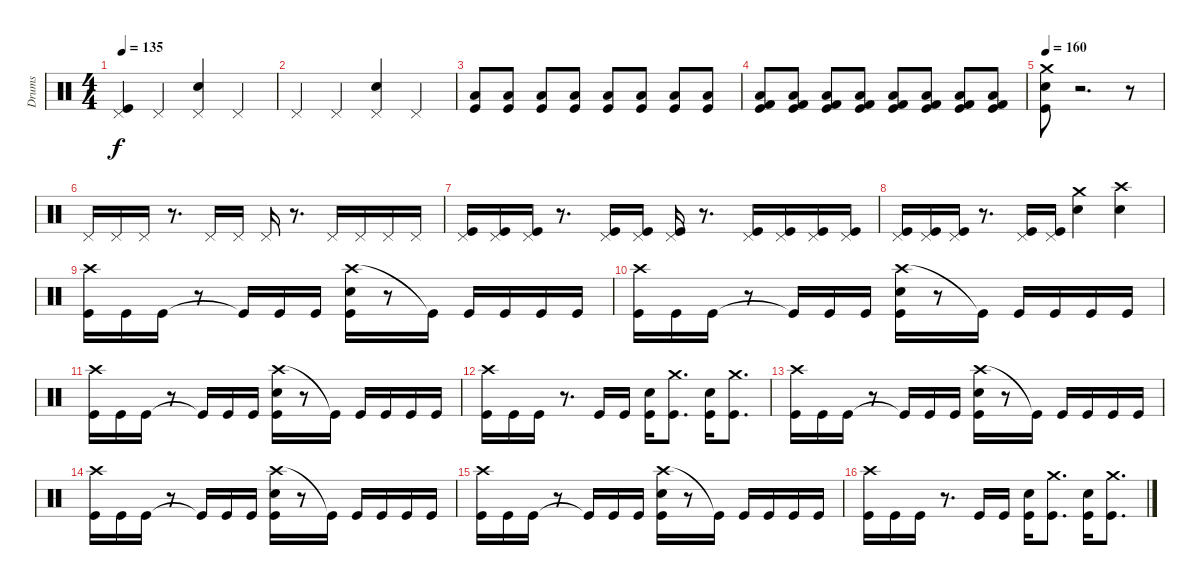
\track ("Drums" "Drums") {instrument percussion}
\staff {score}
\articulation defaults
\ts (4 4)
\tempo 135
\clef neutral
\ks c
("Pedal Hi-Hat (hit)" "Kick (hit)").4{dy f} "Pedal Hi-Hat (hit)".4 ("Pedal Hi-Hat (hit)" "Snare (hit) 2").4 "Pedal Hi-Hat (hit)".4 |
"Pedal Hi-Hat (hit)".4 "Pedal Hi-Hat (hit)".4 ("Pedal Hi-Hat (hit)" "Snare (hit) 2").4 "Pedal Hi-Hat (hit)".4 |
("Low Tom (hit)" "Kick (hit)").8 ("Low Tom (hit)" "Kick (hit)").8 ("Low Tom (hit)" "Kick (hit)").8 ("Low Tom (hit)" "Kick (hit)").8 ("Low Tom (hit)" "Kick (hit)").8 ("Low Tom (hit)" "Kick (hit)").8 ("Low Tom (hit)" "Kick (hit)").8 ("Low Tom (hit)" "Kick (hit)").8 |
("Low Tom (hit)" "Kick (hit) 2" "Kick (hit)").8 ("Low Tom (hit)" "Kick (hit) 2" "Kick (hit)").8 ("Low Tom (hit)" "Kick (hit) 2" "Kick (hit)").8 ("Low Tom (hit)" "Kick (hit) 2" "Kick (hit)").8 ("Low Tom (hit)" "Kick (hit) 2" "Kick (hit)").8 ("Low Tom (hit)" "Kick (hit) 2" "Kick (hit)").8 ("Low Tom (hit)" "Kick (hit) 2" "Kick (hit)").8 ("Low Tom (hit)" "Kick (hit) 2" "Kick (hit)").8 |
\tempo 160
("Crash medium (hit)" "Snare (hit) 2" "Kick (hit)").8 r.2{d} r.8 |
"Pedal Hi-Hat (hit)".16 "Pedal Hi-Hat (hit)".16 "Pedal Hi-Hat (hit)".16 r.8{d} "Pedal Hi-Hat (hit)".16 "Pedal Hi-Hat (hit)".16 "Pedal Hi-Hat (hit)".16 r.8{d} "Pedal Hi-Hat (hit)".16 "Pedal Hi-Hat (hit)".16 "Pedal Hi-Hat (hit)".16 "Pedal Hi-Hat (hit)".16 |
("Pedal Hi-Hat (hit)" "Kick (hit)").16 ("Pedal Hi-Hat (hit)" "Kick (hit)").16 ("Pedal Hi-Hat (hit)" "Kick (hit)").16 r.8{d} ("Pedal Hi-Hat (hit)" "Kick (hit)").16 ("Pedal Hi-Hat (hit)" "Kick (hit)").16 ("Pedal Hi-Hat (hit)" "Kick (hit)").16 r.8{d} ("Pedal Hi-Hat (hit)" "Kick (hit)").16 ("Pedal Hi-Hat (hit)" "Kick (hit)").16 ("Pedal Hi-Hat (hit)" "Kick (hit)").16 ("Pedal Hi-Hat (hit)" "Kick (hit)").16 |
("Pedal Hi-Hat (hit)" "Kick (hit)").16 ("Pedal Hi-Hat (hit)" "Kick (hit)").16 ("Pedal Hi-Hat (hit)" "Kick (hit)").16 r.8{d} ("Pedal Hi-Hat (hit)" "Kick (hit)").16 ("Pedal Hi-Hat (hit)" "Kick (hit)").16 ("Crash medium (hit)" "Snare (hit) 2").4 ("Crash high (hit)" "Snare (hit) 2").4 |
("Crash high (hit)" "Kick (hit)").16 "Kick (hit)".16 "Kick (hit)".16 r.8 "Kick (hit)"{t}.16 "Kick (hit)".16 "Kick (hit)".16 ("Crash high (hit)" "Snare (hit) 2" "Kick (hit)").16 r.8 "Kick (hit)"{t}.16 "Kick (hit)".16 "Kick (hit)".16 "Kick (hit)".16 "Kick (hit)".16 |
("Crash high (hit)" "Kick (hit)").16 "Kick (hit)".16 "Kick (hit)".16 r.8 "Kick (hit)"{t}.16 "Kick (hit)".16 "Kick (hit)".16 ("Crash high (hit)" "Snare (hit) 2" "Kick (hit)").16 r.8 "Kick (hit)"{t}.16 "Kick (hit)".16 "Kick (hit)".16 "Kick (hit)".16 "Kick (hit)".16 |
("Crash high (hit)" "Kick (hit)").16 "Kick (hit)".16 "Kick (hit)".16 r.8 "Kick (hit)"{t}.16 "Kick (hit)".16 "Kick (hit)".16 ("Crash high (hit)" "Snare (hit) 2" "Kick (hit)").16 r.8 "Kick (hit)"{t}.16 "Kick (hit)".16 "Kick (hit)".16 "Kick (hit)".16 "Kick (hit)".16 |
("Crash high (hit)" "Kick (hit)").16 "Kick (hit)".16 "Kick (hit)".16 r.8{d} "Kick (hit)".16 "Kick (hit)".16 ("Snare (hit) 2" "Kick (hit)").16 ("Crash medium (hit)" "Kick (hit)").8{d} ("Snare (hit) 2" "Kick (hit)").16 ("Crash medium (hit)" "Kick (hit)").8{d} |
("Crash high (hit)" "Kick (hit)").16 "Kick (hit)".16 "Kick (hit)".16 r.8 "Kick (hit)"{t}.16 "Kick (hit)".16 "Kick (hit)".16 ("Crash high (hit)" "Snare (hit) 2" "Kick (hit)").16 r.8 "Kick (hit)"{t}.16 "Kick (hit)".16 "Kick (hit)".16 "Kick (hit)".16 "Kick (hit)".16 |
("Crash high (hit)" "Kick (hit)").16 "Kick (hit)".16 "Kick (hit)".16 r.8 "Kick (hit)"{t}.16 "Kick (hit)".16 "Kick (hit)".16 ("Crash high (hit)" "Snare (hit) 2" "Kick (hit)").16 r.8 "Kick (hit)"{t}.16 "Kick (hit)".16 "Kick (hit)".16 "Kick (hit)".16 "Kick (hit)".16 |
("Crash high (hit)" "Kick (hit)").16 "Kick (hit)".16 "Kick (hit)".16 r.8 "Kick (hit)"{t}.16 "Kick (hit)".16 "Kick (hit)".16 ("Crash high (hit)" "Snare (hit) 2" "Kick (hit)").16 r.8 "Kick (hit)"{t}.16 "Kick (hit)".16 "Kick (hit)".16 "Kick (hit)".16 "Kick (hit)".16 |
("Crash high (hit)" "Kick (hit)").16 "Kick (hit)".16 "Kick (hit)".16 r.8{d} "Kick (hit)".16 "Kick (hit)".16 ("Snare (hit) 2" "Kick (hit)").16 ("Crash medium (hit)" "Kick (hit)").8{d} ("Snare (hit) 2" "Kick (hit)").16 ("Crash medium (hit)" "Kick (hit)").8{d}
